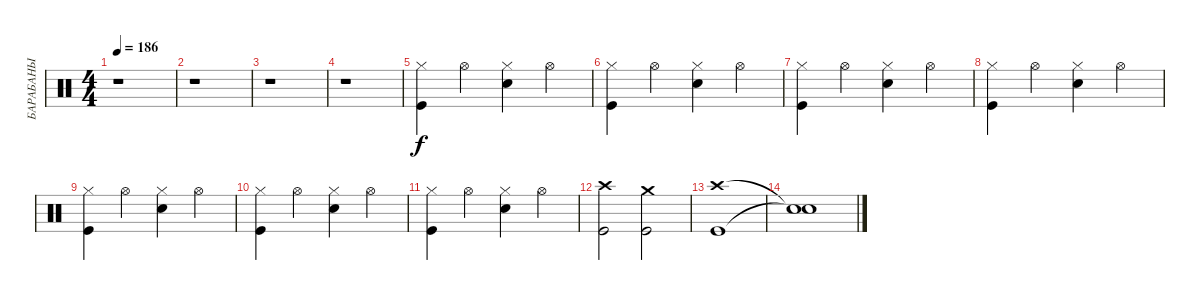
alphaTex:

\track ("БАРАБАНЫ" "БАРАБАНЫ") {instrument percussion}
\staff {score}
\articulation defaults
\ts (4 4)
\tempo 186
\clef neutral
\ks c
r.1{dy f} |
r.1 |
r.1 |
r.1 |
("Hi-Hat (closed)" "Kick (hit)").4 "Hi-Hat (open)".4 ("Hi-Hat (closed)" "Electric Snare (hit)").4 "Hi-Hat (open)".4 |
("Hi-Hat (closed)" "Kick (hit)").4 "Hi-Hat (open)".4 ("Hi-Hat (closed)" "Electric Snare (hit)").4 "Hi-Hat (open)".4 |
("Hi-Hat (closed)" "Kick (hit)").4 "Hi-Hat (open)".4 ("Hi-Hat (closed)" "Electric Snare (hit)").4 "Hi-Hat (open)".4 |
("Hi-Hat (closed)" "Kick (hit)").4 "Hi-Hat (open)".4 ("Hi-Hat (closed)" "Electric Snare (hit)").4 "Hi-Hat (open)".4 |
("Hi-Hat (closed)" "Kick (hit)").4 "Hi-Hat (open)".4 ("Hi-Hat (closed)" "Electric Snare (hit)").4 "Hi-Hat (open)".4 |
("Hi-Hat (closed)" "Kick (hit)").4 "Hi-Hat (open)".4 ("Hi-Hat (closed)" "Electric Snare (hit)").4 "Hi-Hat (open)".4 |
("Hi-Hat (closed)" "Kick (hit)").4 "Hi-Hat (open)".4 ("Hi-Hat (closed)" "Electric Snare (hit)").4 "Hi-Hat (open)".4 |
("Crash high (hit)" "Kick (hit)").2 ("Crash medium (hit)" "Kick (hit)").2 |
("Crash high (hit)" "Kick (hit)").1 |
("Snare (hit)"{t} "Snare (hit)"{t}).1
